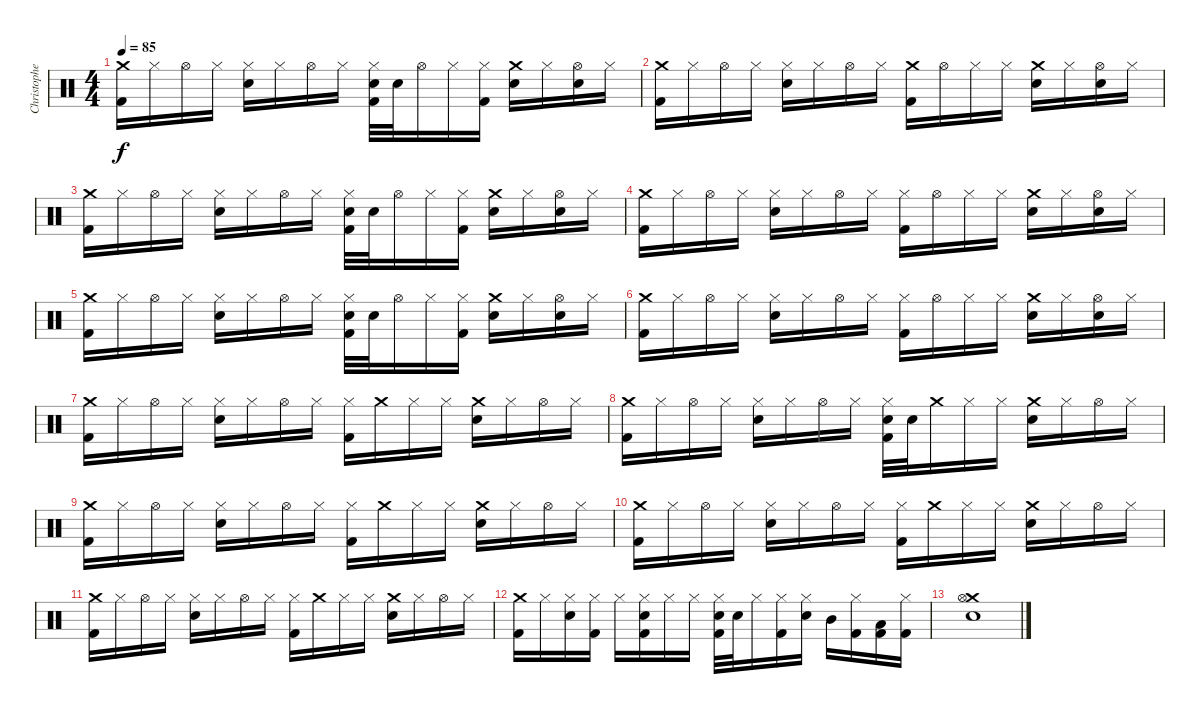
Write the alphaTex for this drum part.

\track ("Christopher" "Christophe") {instrument percussion}
\staff {score}
\articulation defaults
\ts (4 4)
\tempo 85
\clef neutral
\ks c
("Crash medium (hit)" "Kick (hit) 2").16{dy f} "Hi-Hat (closed)".16 "Hi-Hat (open)".16 "Hi-Hat (closed)".16 ("Hi-Hat (closed)" "Snare (hit) 2").16 "Hi-Hat (closed)".16 "Hi-Hat (open)".16 "Hi-Hat (closed)".16 ("Hi-Hat (closed)" "Snare (hit) 2" "Kick (hit) 2").32 "Snare (hit) 2".32 "Hi-Hat (open)".16 "Hi-Hat (closed)".16 ("Hi-Hat (closed)" "Kick (hit) 2").16 ("Crash medium (hit)" "Snare (hit) 2").16 "Hi-Hat (closed)".16 ("Hi-Hat (open)" "Snare (hit) 2").16 "Hi-Hat (closed)".16 |
("Crash medium (hit)" "Kick (hit) 2").16 "Hi-Hat (closed)".16 "Hi-Hat (open)".16 "Hi-Hat (closed)".16 ("Hi-Hat (closed)" "Snare (hit) 2").16 "Hi-Hat (closed)".16 "Hi-Hat (open)".16 "Hi-Hat (closed)".16 ("Crash medium (hit)" "Kick (hit) 2").16 "Hi-Hat (open)".16 "Hi-Hat (closed)".16 "Hi-Hat (closed)".16 ("Crash medium (hit)" "Snare (hit) 2").16 "Hi-Hat (closed)".16 ("Hi-Hat (open)" "Snare (hit) 2").16 "Hi-Hat (closed)".16 |
("Crash medium (hit)" "Kick (hit) 2").16 "Hi-Hat (closed)".16 "Hi-Hat (open)".16 "Hi-Hat (closed)".16 ("Hi-Hat (closed)" "Snare (hit) 2").16 "Hi-Hat (closed)".16 "Hi-Hat (open)".16 "Hi-Hat (closed)".16 ("Hi-Hat (closed)" "Snare (hit) 2" "Kick (hit) 2").32 "Snare (hit) 2".32 "Hi-Hat (open)".16 "Hi-Hat (closed)".16 ("Hi-Hat (closed)" "Kick (hit) 2").16 ("Crash medium (hit)" "Snare (hit) 2").16 "Hi-Hat (closed)".16 ("Hi-Hat (open)" "Snare (hit) 2").16 "Hi-Hat (closed)".16 |
("Crash medium (hit)" "Kick (hit) 2").16 "Hi-Hat (closed)".16 "Hi-Hat (open)".16 "Hi-Hat (closed)".16 ("Hi-Hat (closed)" "Snare (hit) 2").16 "Hi-Hat (closed)".16 "Hi-Hat (open)".16 "Hi-Hat (closed)".16 ("Hi-Hat (closed)" "Kick (hit) 2").16 "Hi-Hat (open)".16 "Hi-Hat (closed)".16 "Hi-Hat (closed)".16 ("Crash medium (hit)" "Snare (hit) 2").16 "Hi-Hat (closed)".16 ("Hi-Hat (open)" "Snare (hit) 2").16 "Hi-Hat (closed)".16 |
("Crash medium (hit)" "Kick (hit) 2").16 "Hi-Hat (closed)".16 "Hi-Hat (open)".16 "Hi-Hat (closed)".16 ("Hi-Hat (closed)" "Snare (hit) 2").16 "Hi-Hat (closed)".16 "Hi-Hat (open)".16 "Hi-Hat (closed)".16 ("Hi-Hat (closed)" "Snare (hit) 2" "Kick (hit) 2").32 "Snare (hit) 2".32 "Hi-Hat (open)".16 "Hi-Hat (closed)".16 ("Hi-Hat (closed)" "Kick (hit) 2").16 ("Crash medium (hit)" "Snare (hit) 2").16 "Hi-Hat (closed)".16 ("Hi-Hat (open)" "Snare (hit) 2").16 "Hi-Hat (closed)".16 |
("Crash medium (hit)" "Kick (hit) 2").16 "Hi-Hat (closed)".16 "Hi-Hat (open)".16 "Hi-Hat (closed)".16 ("Hi-Hat (closed)" "Snare (hit) 2").16 "Hi-Hat (closed)".16 "Hi-Hat (open)".16 "Hi-Hat (closed)".16 ("Hi-Hat (closed)" "Kick (hit) 2").16 "Hi-Hat (open)".16 "Hi-Hat (closed)".16 "Hi-Hat (closed)".16 ("Crash medium (hit)" "Snare (hit) 2").16 "Hi-Hat (closed)".16 ("Hi-Hat (open)" "Snare (hit) 2").16 "Hi-Hat (closed)".16 |
("Crash medium (hit)" "Kick (hit) 2").16 "Hi-Hat (closed)".16 "Hi-Hat (open)".16 "Hi-Hat (closed)".16 ("Hi-Hat (closed)" "Snare (hit) 2").16 "Hi-Hat (closed)".16 "Hi-Hat (open)".16 "Hi-Hat (closed)".16 ("Hi-Hat (closed)" "Kick (hit) 2").16 "Crash medium (hit)".16 "Hi-Hat (closed)".16 "Hi-Hat (closed)".16 ("Crash medium (hit)" "Snare (hit) 2").16 "Hi-Hat (closed)".16 "Hi-Hat (open)".16 "Hi-Hat (closed)".16 |
("Crash medium (hit)" "Kick (hit) 2").16 "Hi-Hat (closed)".16 "Hi-Hat (open)".16 "Hi-Hat (closed)".16 ("Hi-Hat (closed)" "Snare (hit) 2").16 "Hi-Hat (closed)".16 "Hi-Hat (open)".16 "Hi-Hat (closed)".16 ("Hi-Hat (closed)" "Snare (hit) 2" "Kick (hit) 2").32 "Snare (hit) 2".32 "Crash medium (hit)".16 "Hi-Hat (closed)".16 "Hi-Hat (closed)".16 ("Crash medium (hit)" "Snare (hit) 2").16 "Hi-Hat (closed)".16 "Hi-Hat (open)".16 "Hi-Hat (closed)".16 |
("Crash medium (hit)" "Kick (hit) 2").16 "Hi-Hat (closed)".16 "Hi-Hat (open)".16 "Hi-Hat (closed)".16 ("Hi-Hat (closed)" "Snare (hit) 2").16 "Hi-Hat (closed)".16 "Hi-Hat (open)".16 "Hi-Hat (closed)".16 ("Hi-Hat (closed)" "Kick (hit) 2").16 "Crash medium (hit)".16 "Hi-Hat (closed)".16 "Hi-Hat (closed)".16 ("Crash medium (hit)" "Snare (hit) 2").16 "Hi-Hat (closed)".16 "Hi-Hat (open)".16 "Hi-Hat (closed)".16 |
("Crash medium (hit)" "Kick (hit) 2").16 "Hi-Hat (closed)".16 "Hi-Hat (open)".16 "Hi-Hat (closed)".16 ("Hi-Hat (closed)" "Snare (hit) 2").16 "Hi-Hat (closed)".16 "Hi-Hat (open)".16 "Hi-Hat (closed)".16 ("Hi-Hat (closed)" "Kick (hit) 2").16 "Crash medium (hit)".16 "Hi-Hat (closed)".16 "Hi-Hat (closed)".16 ("Crash medium (hit)" "Snare (hit) 2").16 "Hi-Hat (closed)".16 "Hi-Hat (open)".16 "Hi-Hat (closed)".16 |
("Crash medium (hit)" "Kick (hit) 2").16 "Hi-Hat (closed)".16 "Hi-Hat (open)".16 "Hi-Hat (closed)".16 ("Hi-Hat (closed)" "Snare (hit) 2").16 "Hi-Hat (closed)".16 "Hi-Hat (open)".16 "Hi-Hat (closed)".16 ("Hi-Hat (closed)" "Kick (hit) 2").16 "Crash medium (hit)".16 "Hi-Hat (closed)".16 "Hi-Hat (closed)".16 ("Crash medium (hit)" "Snare (hit) 2").16 "Hi-Hat (closed)".16 "Hi-Hat (open)".16 "Hi-Hat (closed)".16 |
("Crash medium (hit)" "Kick (hit) 2").16 "Hi-Hat (closed)".16 ("Hi-Hat (closed)" "Snare (hit) 2").16 ("Hi-Hat (closed)" "Kick (hit) 2").16 "Hi-Hat (closed)".16 ("Hi-Hat (closed)" "Snare (hit) 2" "Kick (hit) 2").16 "Hi-Hat (closed)".16 "Hi-Hat (closed)".16 ("Hi-Hat (closed)" "Snare (hit) 2" "Kick (hit) 2").32 "Snare (hit) 2".32 "Hi-Hat (closed)".16 ("Hi-Hat (closed)" "Kick (hit) 2").16 ("Hi-Hat (closed)" "Snare (hit) 2").16 "Mid Tom (hit)".16 ("Hi-Hat (closed)" "Kick (hit) 2").16 ("Low Tom (hit)" "Kick (hit) 2").16 ("Hi-Hat (closed)" "Kick (hit) 2").16 |
("Crash medium (hit)" "Hi-Hat (open)" "Snare (hit) 2").1
